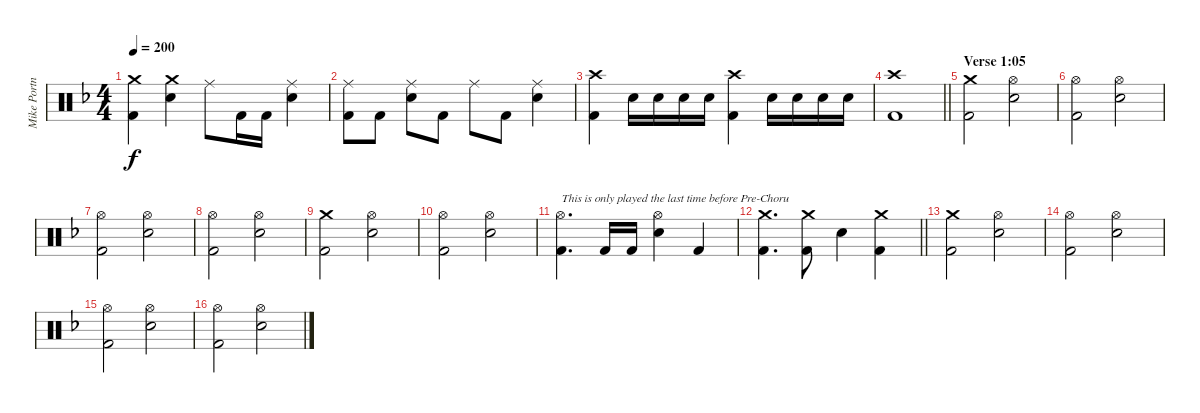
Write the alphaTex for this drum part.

\track ("Mike Portnoy (Drums)" "Mike Portn") {instrument percussion}
\staff {score}
\articulation defaults
\ts (4 4)
\tempo 200
\clef neutral
\ks f
("Crash medium (hit)" "Kick (hit) 2").4{dy f} ("Crash medium (hit)" "Electric Snare (hit)").4 "Ride (middle)".8 "Kick (hit) 2".16 "Kick (hit) 2".16 ("Ride (middle)" "Electric Snare (hit)").4 |
("Ride (middle)" "Kick (hit) 2").8 "Kick (hit) 2".8 ("Ride (middle)" "Electric Snare (hit)").8 "Kick (hit) 2".8 "Ride (middle)".8 "Kick (hit) 2".8 ("Ride (middle)" "Electric Snare (hit)").4 |
("Crash high (hit)" "Kick (hit) 2").4 "Electric Snare (hit)".16 "Electric Snare (hit)".16 "Electric Snare (hit)".16 "Electric Snare (hit)".16 ("Crash high (hit)" "Kick (hit) 2").4 "Electric Snare (hit)".16 "Electric Snare (hit)".16 "Electric Snare (hit)".16 "Electric Snare (hit)".16 |
\barLineRight lightlight
("Crash high (hit)" "Kick (hit) 2").1 |
\section ("" "Verse 1:05")
("Crash medium (hit)" "Kick (hit) 2").2 ("Hi-Hat (open)" "Electric Snare (hit)").2 |
("Hi-Hat (open)" "Kick (hit) 2").2 ("Hi-Hat (open)" "Electric Snare (hit)").2 |
("Hi-Hat (open)" "Kick (hit) 2").2 ("Hi-Hat (open)" "Electric Snare (hit)").2 |
("Hi-Hat (open)" "Kick (hit) 2").2 ("Hi-Hat (open)" "Electric Snare (hit)").2 |
("Crash medium (hit)" "Kick (hit) 2").2 ("Hi-Hat (open)" "Electric Snare (hit)").2 |
("Hi-Hat (open)" "Kick (hit) 2").2 ("Hi-Hat (open)" "Electric Snare (hit)").2 |
("Hi-Hat (open)" "Kick (hit) 2").4{d txt "This is only played the last time before Pre-Choru"} "Kick (hit) 2".16 "Kick (hit) 2".16 ("Hi-Hat (open)" "Electric Snare (hit)").4 "Kick (hit) 2".4 |
\barLineRight lightlight
("Crash medium (hit)" "Kick (hit) 2").4{d} ("Crash medium (hit)" "Kick (hit) 2").8 "Electric Snare (hit)".4 ("Crash medium (hit)" "Kick (hit) 2").4 |
\section ("" "")
("Crash medium (hit)" "Kick (hit) 2").2 ("Hi-Hat (open)" "Electric Snare (hit)").2 |
("Hi-Hat (open)" "Kick (hit) 2").2 ("Hi-Hat (open)" "Electric Snare (hit)").2 |
("Hi-Hat (open)" "Kick (hit) 2").2 ("Hi-Hat (open)" "Electric Snare (hit)").2 |
("Hi-Hat (open)" "Kick (hit) 2").2 ("Hi-Hat (open)" "Electric Snare (hit)").2
